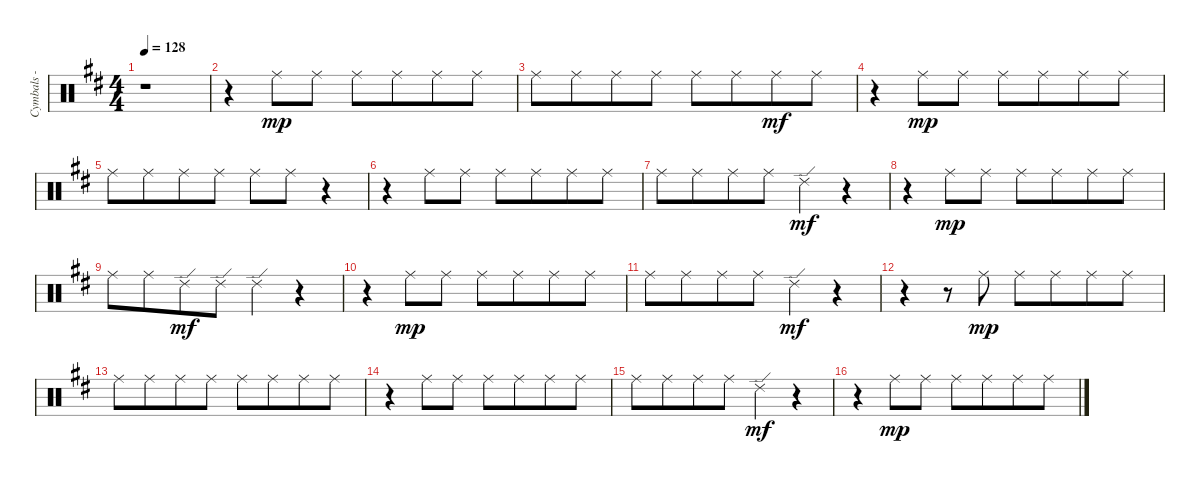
\track ("Cymbals - ride" "Cymbals - ") {instrument percussion}
\staff {score}
\articulation defaults
\ts (4 4)
\tempo 128
\clef neutral
\ks bminor
r.1{dy p} |
r.4 "Ride (middle)".8{dy mp} "Ride (middle)".8 "Ride (middle)".8 "Ride (middle)".8{beam merge} "Ride (middle)".8 "Ride (middle)".8 |
"Ride (middle)".8 "Ride (middle)".8{beam merge} "Ride (middle)".8 "Ride (middle)".8 "Ride (middle)".8 "Ride (middle)".8{beam merge} "Ride (middle)".8{dy mf} "Ride (middle)".8 |
r.4 "Ride (middle)".8{dy mp} "Ride (middle)".8 "Ride (middle)".8 "Ride (middle)".8{beam merge} "Ride (middle)".8 "Ride (middle)".8 |
"Ride (middle)".8 "Ride (middle)".8{beam merge} "Ride (middle)".8 "Ride (middle)".8 "Ride (middle)".8 "Ride (middle)".8 r.4 |
r.4 "Ride (middle)".8 "Ride (middle)".8 "Ride (middle)".8 "Ride (middle)".8{beam merge} "Ride (middle)".8 "Ride (middle)".8 |
"Ride (middle)".8 "Ride (middle)".8{beam merge} "Ride (middle)".8 "Ride (middle)".8 "Ride (edge) 2".4{dy mf} r.4 |
r.4 "Ride (middle)".8{dy mp} "Ride (middle)".8 "Ride (middle)".8 "Ride (middle)".8{beam merge} "Ride (middle)".8 "Ride (middle)".8 |
"Ride (middle)".8 "Ride (middle)".8{beam merge} "Ride (edge) 2".8{dy mf} "Ride (edge) 2".8 "Ride (edge) 2".4 r.4 |
r.4 "Ride (middle)".8{dy mp} "Ride (middle)".8 "Ride (middle)".8 "Ride (middle)".8{beam merge} "Ride (middle)".8 "Ride (middle)".8 |
"Ride (middle)".8 "Ride (middle)".8{beam merge} "Ride (middle)".8 "Ride (middle)".8 "Ride (edge) 2".4{dy mf} r.4 |
r.4 r.8 "Ride (middle)".8{dy mp} "Ride (middle)".8 "Ride (middle)".8{beam merge} "Ride (middle)".8 "Ride (middle)".8 |
"Ride (middle)".8 "Ride (middle)".8{beam merge} "Ride (middle)".8 "Ride (middle)".8 "Ride (middle)".8 "Ride (middle)".8{beam merge} "Ride (middle)".8 "Ride (middle)".8 |
r.4 "Ride (middle)".8 "Ride (middle)".8 "Ride (middle)".8 "Ride (middle)".8{beam merge} "Ride (middle)".8 "Ride (middle)".8 |
"Ride (middle)".8 "Ride (middle)".8{beam merge} "Ride (middle)".8 "Ride (middle)".8 "Ride (edge) 2".4{dy mf} r.4 |
r.4 "Ride (middle)".8{dy mp} "Ride (middle)".8 "Ride (middle)".8 "Ride (middle)".8{beam merge} "Ride (middle)".8 "Ride (middle)".8
